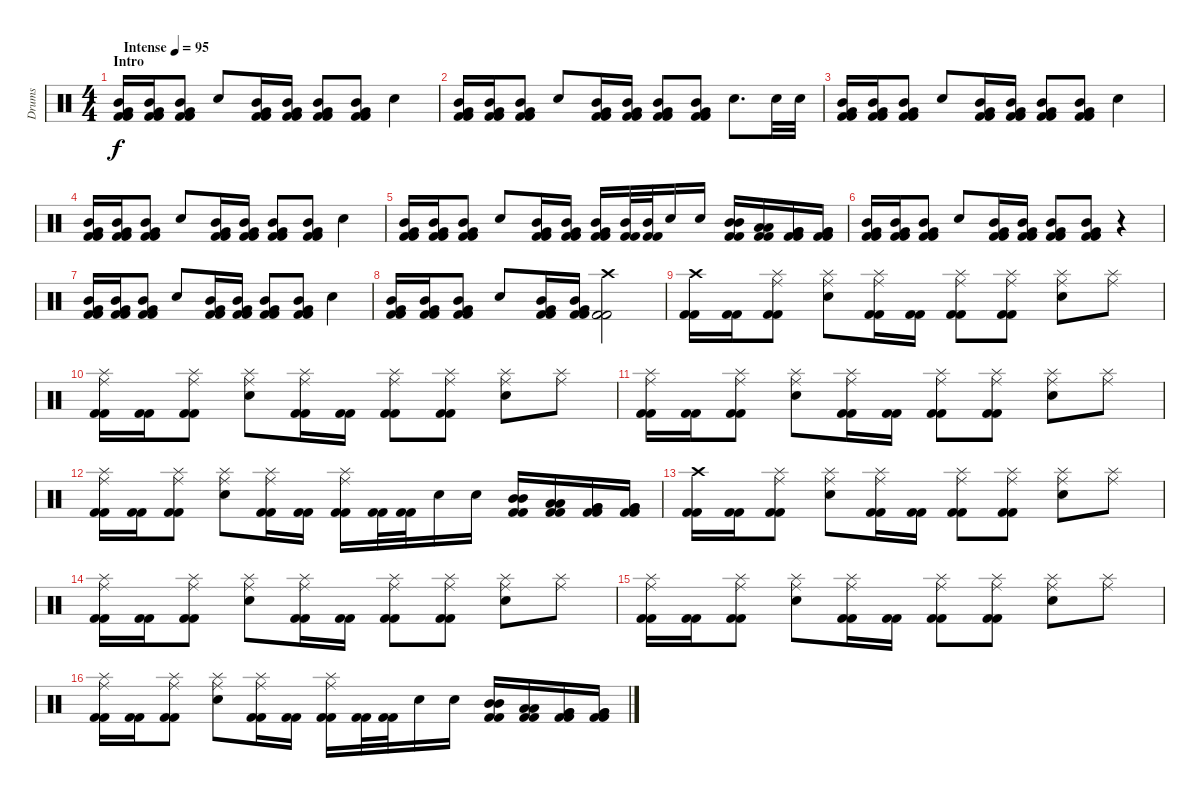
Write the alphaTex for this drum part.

\track ("Drums" "Drums") {instrument percussion}
\staff {score}
\articulation defaults
\ts (4 4)
\section ("" "Intro")
\tempo (95 "Intense")
\clef neutral
\ks c
("Mid Tom (hit)" "Very Low Tom (hit)" "Kick (hit) 2" "Kick (hit) 2").16{dy f} ("Mid Tom (hit)" "Very Low Tom (hit)" "Kick (hit) 2" "Kick (hit) 2").16 ("Mid Tom (hit)" "Very Low Tom (hit)" "Kick (hit) 2" "Kick (hit) 2").8 "Snare (hit) 2".8 ("Mid Tom (hit)" "Very Low Tom (hit)" "Kick (hit) 2" "Kick (hit) 2").16 ("Mid Tom (hit)" "Very Low Tom (hit)" "Kick (hit) 2" "Kick (hit) 2").16 ("Mid Tom (hit)" "Very Low Tom (hit)" "Kick (hit) 2" "Kick (hit) 2").8 ("Mid Tom (hit)" "Very Low Tom (hit)" "Kick (hit) 2" "Kick (hit) 2").8 "Snare (hit) 2".4 |
("Mid Tom (hit)" "Very Low Tom (hit)" "Kick (hit) 2" "Kick (hit) 2").16 ("Mid Tom (hit)" "Very Low Tom (hit)" "Kick (hit) 2" "Kick (hit) 2").16 ("Mid Tom (hit)" "Very Low Tom (hit)" "Kick (hit) 2" "Kick (hit) 2").8 "Snare (hit) 2".8 ("Mid Tom (hit)" "Very Low Tom (hit)" "Kick (hit) 2" "Kick (hit) 2").16 ("Mid Tom (hit)" "Very Low Tom (hit)" "Kick (hit) 2" "Kick (hit) 2").16 ("Mid Tom (hit)" "Very Low Tom (hit)" "Kick (hit) 2" "Kick (hit) 2").8 ("Mid Tom (hit)" "Very Low Tom (hit)" "Kick (hit) 2" "Kick (hit) 2").8 "Snare (hit) 2".8{d} "Snare (hit) 2".32 "Snare (hit) 2".32 |
("Mid Tom (hit)" "Very Low Tom (hit)" "Kick (hit) 2" "Kick (hit) 2").16 ("Mid Tom (hit)" "Very Low Tom (hit)" "Kick (hit) 2" "Kick (hit) 2").16 ("Mid Tom (hit)" "Very Low Tom (hit)" "Kick (hit) 2" "Kick (hit) 2").8 "Snare (hit) 2".8 ("Mid Tom (hit)" "Very Low Tom (hit)" "Kick (hit) 2" "Kick (hit) 2").16 ("Mid Tom (hit)" "Very Low Tom (hit)" "Kick (hit) 2" "Kick (hit) 2").16 ("Mid Tom (hit)" "Very Low Tom (hit)" "Kick (hit) 2" "Kick (hit) 2").8 ("Mid Tom (hit)" "Very Low Tom (hit)" "Kick (hit) 2" "Kick (hit) 2").8 "Snare (hit) 2".4 |
("Mid Tom (hit)" "Very Low Tom (hit)" "Kick (hit) 2" "Kick (hit) 2").16 ("Mid Tom (hit)" "Very Low Tom (hit)" "Kick (hit) 2" "Kick (hit) 2").16 ("Mid Tom (hit)" "Very Low Tom (hit)" "Kick (hit) 2" "Kick (hit) 2").8 "Snare (hit) 2".8 ("Mid Tom (hit)" "Very Low Tom (hit)" "Kick (hit) 2" "Kick (hit) 2").16 ("Mid Tom (hit)" "Very Low Tom (hit)" "Kick (hit) 2" "Kick (hit) 2").16 ("Mid Tom (hit)" "Very Low Tom (hit)" "Kick (hit) 2" "Kick (hit) 2").8 ("Mid Tom (hit)" "Very Low Tom (hit)" "Kick (hit) 2" "Kick (hit) 2").8 "Snare (hit) 2".4 |
("Mid Tom (hit)" "Very Low Tom (hit)" "Kick (hit) 2" "Kick (hit) 2").16 ("Mid Tom (hit)" "Very Low Tom (hit)" "Kick (hit) 2" "Kick (hit) 2").16 ("Mid Tom (hit)" "Very Low Tom (hit)" "Kick (hit) 2" "Kick (hit) 2").8 "Snare (hit) 2".8 ("Mid Tom (hit)" "Very Low Tom (hit)" "Kick (hit) 2" "Kick (hit) 2").16 ("Mid Tom (hit)" "Very Low Tom (hit)" "Kick (hit) 2" "Kick (hit) 2").16 ("Mid Tom (hit)" "Very Low Tom (hit)" "Kick (hit) 2" "Kick (hit) 2").16 ("Mid Tom (hit)" "Kick (hit) 2" "Kick (hit) 2").32 ("Mid Tom (hit)" "Kick (hit) 2" "Kick (hit) 2").32 "Snare (hit) 2".16 "Snare (hit) 2".16 ("Mid Tom (hit)" "Mid Tom (hit)" "Kick (hit) 2" "Kick (hit) 2").16 ("Low Tom (hit)" "Low Tom (hit)" "Kick (hit) 2" "Kick (hit) 2").16 ("Very Low Tom (hit)" "Very Low Tom (hit)" "Kick (hit) 2" "Kick (hit) 2").16 ("Very Low Tom (hit)" "Very Low Tom (hit)" "Kick (hit) 2" "Kick (hit) 2").16 |
("Mid Tom (hit)" "Very Low Tom (hit)" "Kick (hit) 2" "Kick (hit) 2").16 ("Mid Tom (hit)" "Very Low Tom (hit)" "Kick (hit) 2" "Kick (hit) 2").16 ("Mid Tom (hit)" "Very Low Tom (hit)" "Kick (hit) 2" "Kick (hit) 2").8 "Snare (hit) 2".8 ("Mid Tom (hit)" "Very Low Tom (hit)" "Kick (hit) 2" "Kick (hit) 2").16 ("Mid Tom (hit)" "Very Low Tom (hit)" "Kick (hit) 2" "Kick (hit) 2").16 ("Mid Tom (hit)" "Very Low Tom (hit)" "Kick (hit) 2" "Kick (hit) 2").8 ("Mid Tom (hit)" "Very Low Tom (hit)" "Kick (hit) 2" "Kick (hit) 2").8 r.4 |
("Mid Tom (hit)" "Very Low Tom (hit)" "Kick (hit) 2" "Kick (hit) 2").16 ("Mid Tom (hit)" "Very Low Tom (hit)" "Kick (hit) 2" "Kick (hit) 2").16 ("Mid Tom (hit)" "Very Low Tom (hit)" "Kick (hit) 2" "Kick (hit) 2").8 "Snare (hit) 2".8 ("Mid Tom (hit)" "Very Low Tom (hit)" "Kick (hit) 2" "Kick (hit) 2").16 ("Mid Tom (hit)" "Very Low Tom (hit)" "Kick (hit) 2" "Kick (hit) 2").16 ("Mid Tom (hit)" "Very Low Tom (hit)" "Kick (hit) 2" "Kick (hit) 2").8 ("Mid Tom (hit)" "Very Low Tom (hit)" "Kick (hit) 2" "Kick (hit) 2").8 "Snare (hit) 2".4 |
("Mid Tom (hit)" "Very Low Tom (hit)" "Kick (hit) 2" "Kick (hit) 2").16 ("Mid Tom (hit)" "Very Low Tom (hit)" "Kick (hit) 2" "Kick (hit) 2").16 ("Mid Tom (hit)" "Very Low Tom (hit)" "Kick (hit) 2" "Kick (hit) 2").8 "Snare (hit) 2".8 ("Mid Tom (hit)" "Very Low Tom (hit)" "Kick (hit) 2" "Kick (hit) 2").16 ("Mid Tom (hit)" "Very Low Tom (hit)" "Kick (hit) 2" "Kick (hit) 2").16 ("Crash high (hit)" "Kick (hit) 2" "Kick (hit) 2").2 |
("Crash high (hit)" "Kick (hit) 2" "Kick (hit) 2").16 ("Kick (hit) 2" "Kick (hit) 2").16 ("Ride (middle)" "Splash (hit)" "Kick (hit) 2" "Kick (hit) 2").8 ("Ride (middle)" "Splash (hit)" "Snare (hit) 2").8 ("Ride (middle)" "Splash (hit)" "Kick (hit) 2" "Kick (hit) 2").16 ("Kick (hit) 2" "Kick (hit) 2").16 ("Ride (middle)" "Splash (hit)" "Kick (hit) 2" "Kick (hit) 2").8 ("Ride (middle)" "Splash (hit)" "Kick (hit) 2" "Kick (hit) 2").8 ("Ride (middle)" "Splash (hit)" "Snare (hit) 2").8 ("Ride (middle)" "Splash (hit)").8 |
("Ride (middle)" "Splash (hit)" "Kick (hit) 2" "Kick (hit) 2").16 ("Kick (hit) 2" "Kick (hit) 2").16 ("Ride (middle)" "Splash (hit)" "Kick (hit) 2" "Kick (hit) 2").8 ("Ride (middle)" "Splash (hit)" "Snare (hit) 2").8 ("Ride (middle)" "Splash (hit)" "Kick (hit) 2" "Kick (hit) 2").16 ("Kick (hit) 2" "Kick (hit) 2").16 ("Ride (middle)" "Splash (hit)" "Kick (hit) 2" "Kick (hit) 2").8 ("Ride (middle)" "Splash (hit)" "Kick (hit) 2" "Kick (hit) 2").8 ("Ride (middle)" "Splash (hit)" "Snare (hit) 2").8 ("Ride (middle)" "Splash (hit)").8 |
("Ride (middle)" "Splash (hit)" "Kick (hit) 2" "Kick (hit) 2").16 ("Kick (hit) 2" "Kick (hit) 2").16 ("Ride (middle)" "Splash (hit)" "Kick (hit) 2" "Kick (hit) 2").8 ("Ride (middle)" "Splash (hit)" "Snare (hit) 2").8 ("Ride (middle)" "Splash (hit)" "Kick (hit) 2" "Kick (hit) 2").16 ("Kick (hit) 2" "Kick (hit) 2").16 ("Ride (middle)" "Splash (hit)" "Kick (hit) 2" "Kick (hit) 2").8 ("Ride (middle)" "Splash (hit)" "Kick (hit) 2" "Kick (hit) 2").8 ("Ride (middle)" "Splash (hit)" "Snare (hit) 2").8 ("Ride (middle)" "Splash (hit)").8 |
("Ride (middle)" "Splash (hit)" "Kick (hit) 2" "Kick (hit) 2").16 ("Kick (hit) 2" "Kick (hit) 2").16 ("Ride (middle)" "Splash (hit)" "Kick (hit) 2" "Kick (hit) 2").8 ("Ride (middle)" "Splash (hit)" "Snare (hit) 2").8 ("Ride (middle)" "Splash (hit)" "Kick (hit) 2" "Kick (hit) 2").16 ("Kick (hit) 2" "Kick (hit) 2").16 ("Ride (middle)" "Splash (hit)" "Kick (hit) 2" "Kick (hit) 2").16 ("Kick (hit) 2" "Kick (hit) 2").32 ("Kick (hit) 2" "Kick (hit) 2").32 "Electric Snare (hit)".16 "Electric Snare (hit)".16 ("Mid Tom (hit)" "Mid Tom (hit)" "Kick (hit) 2" "Kick (hit) 2").16 ("Low Tom (hit)" "Low Tom (hit)" "Kick (hit) 2" "Kick (hit) 2").16 ("Very Low Tom (hit)" "Very Low Tom (hit)" "Kick (hit) 2" "Kick (hit) 2").16 ("Very Low Tom (hit)" "Very Low Tom (hit)" "Kick (hit) 2" "Kick (hit) 2").16 |
("Crash high (hit)" "Kick (hit) 2" "Kick (hit) 2").16 ("Kick (hit) 2" "Kick (hit) 2").16 ("Ride (middle)" "Splash (hit)" "Kick (hit) 2" "Kick (hit) 2").8 ("Ride (middle)" "Splash (hit)" "Snare (hit) 2").8 ("Ride (middle)" "Splash (hit)" "Kick (hit) 2" "Kick (hit) 2").16 ("Kick (hit) 2" "Kick (hit) 2").16 ("Ride (middle)" "Splash (hit)" "Kick (hit) 2" "Kick (hit) 2").8 ("Ride (middle)" "Splash (hit)" "Kick (hit) 2" "Kick (hit) 2").8 ("Ride (middle)" "Splash (hit)" "Snare (hit) 2").8 ("Ride (middle)" "Splash (hit)").8 |
("Ride (middle)" "Splash (hit)" "Kick (hit) 2" "Kick (hit) 2").16 ("Kick (hit) 2" "Kick (hit) 2").16 ("Ride (middle)" "Splash (hit)" "Kick (hit) 2" "Kick (hit) 2").8 ("Ride (middle)" "Splash (hit)" "Snare (hit) 2").8 ("Ride (middle)" "Splash (hit)" "Kick (hit) 2" "Kick (hit) 2").16 ("Kick (hit) 2" "Kick (hit) 2").16 ("Ride (middle)" "Splash (hit)" "Kick (hit) 2" "Kick (hit) 2").8 ("Ride (middle)" "Splash (hit)" "Kick (hit) 2" "Kick (hit) 2").8 ("Ride (middle)" "Splash (hit)" "Snare (hit) 2").8 ("Ride (middle)" "Splash (hit)").8 |
("Ride (middle)" "Splash (hit)" "Kick (hit) 2" "Kick (hit) 2").16 ("Kick (hit) 2" "Kick (hit) 2").16 ("Ride (middle)" "Splash (hit)" "Kick (hit) 2" "Kick (hit) 2").8 ("Ride (middle)" "Splash (hit)" "Snare (hit) 2").8 ("Ride (middle)" "Splash (hit)" "Kick (hit) 2" "Kick (hit) 2").16 ("Kick (hit) 2" "Kick (hit) 2").16 ("Ride (middle)" "Splash (hit)" "Kick (hit) 2" "Kick (hit) 2").8 ("Ride (middle)" "Splash (hit)" "Kick (hit) 2" "Kick (hit) 2").8 ("Ride (middle)" "Splash (hit)" "Snare (hit) 2").8 ("Ride (middle)" "Splash (hit)").8 |
("Ride (middle)" "Splash (hit)" "Kick (hit) 2" "Kick (hit) 2").16 ("Kick (hit) 2" "Kick (hit) 2").16 ("Ride (middle)" "Splash (hit)" "Kick (hit) 2" "Kick (hit) 2").8 ("Ride (middle)" "Splash (hit)" "Snare (hit) 2").8 ("Ride (middle)" "Splash (hit)" "Kick (hit) 2" "Kick (hit) 2").16 ("Kick (hit) 2" "Kick (hit) 2").16 ("Ride (middle)" "Splash (hit)" "Kick (hit) 2" "Kick (hit) 2").16 ("Kick (hit) 2" "Kick (hit) 2").32 ("Kick (hit) 2" "Kick (hit) 2").32 "Electric Snare (hit)".16 "Electric Snare (hit)".16 ("Mid Tom (hit)" "Mid Tom (hit)" "Kick (hit) 2" "Kick (hit) 2").16 ("Low Tom (hit)" "Low Tom (hit)" "Kick (hit) 2" "Kick (hit) 2").16 ("Very Low Tom (hit)" "Very Low Tom (hit)" "Kick (hit) 2" "Kick (hit) 2").16 ("Very Low Tom (hit)" "Very Low Tom (hit)" "Kick (hit) 2" "Kick (hit) 2").16
